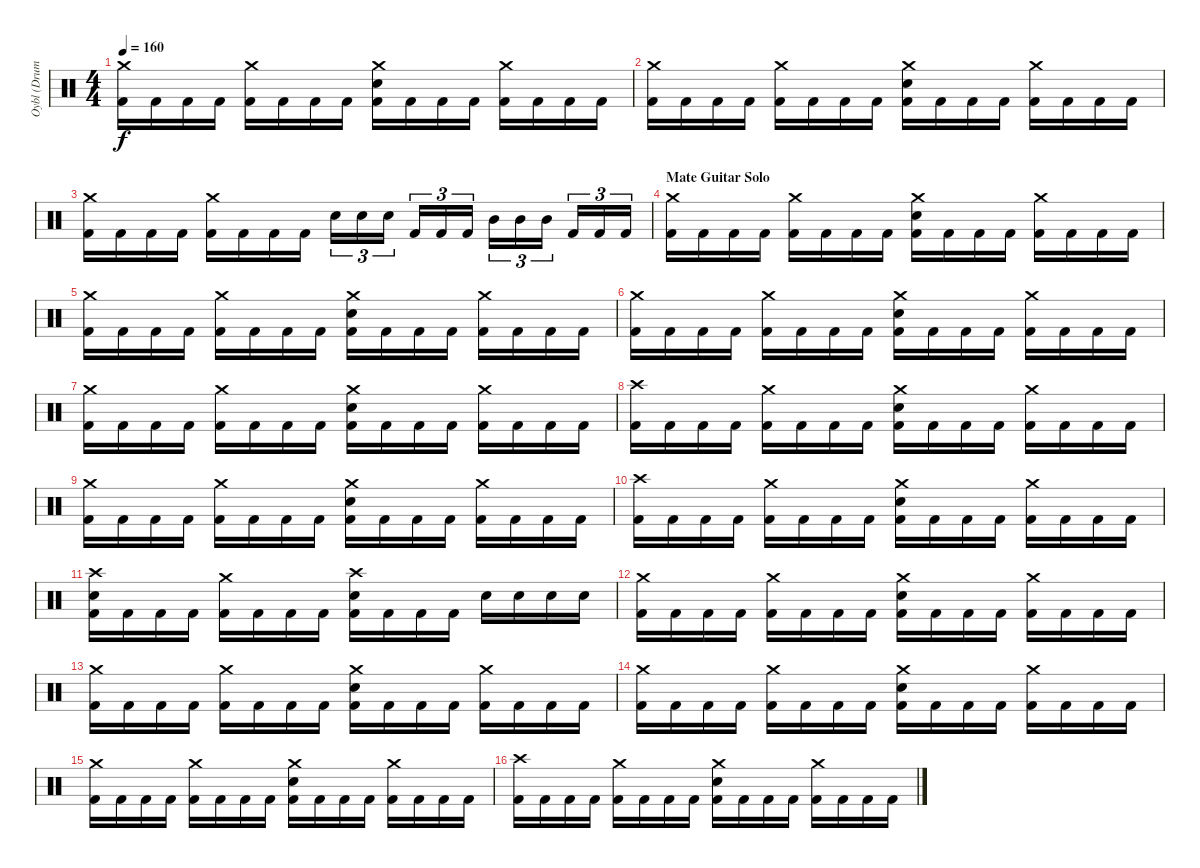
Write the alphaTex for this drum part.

\track ("Oybl (Drums)" "Oybl (Drum") {instrument percussion}
\staff {score}
\articulation defaults
\ts (4 4)
\tempo 160
\clef neutral
\ks c
("Crash medium (hit)" "Kick (hit) 2").16{dy f} "Kick (hit) 2".16 "Kick (hit) 2".16 "Kick (hit) 2".16 ("Crash medium (hit)" "Kick (hit) 2").16 "Kick (hit) 2".16 "Kick (hit) 2".16 "Kick (hit) 2".16 ("Crash medium (hit)" "Snare (hit) 2" "Kick (hit) 2").16 "Kick (hit) 2".16 "Kick (hit) 2".16 "Kick (hit) 2".16 ("Crash medium (hit)" "Kick (hit) 2").16 "Kick (hit) 2".16 "Kick (hit) 2".16 "Kick (hit) 2".16 |
("Crash medium (hit)" "Kick (hit) 2").16 "Kick (hit) 2".16 "Kick (hit) 2".16 "Kick (hit) 2".16 ("Crash medium (hit)" "Kick (hit) 2").16 "Kick (hit) 2".16 "Kick (hit) 2".16 "Kick (hit) 2".16 ("Crash medium (hit)" "Snare (hit) 2" "Kick (hit) 2").16 "Kick (hit) 2".16 "Kick (hit) 2".16 "Kick (hit) 2".16 ("Crash medium (hit)" "Kick (hit) 2").16 "Kick (hit) 2".16 "Kick (hit) 2".16 "Kick (hit) 2".16 |
("Crash medium (hit)" "Kick (hit) 2").16 "Kick (hit) 2".16 "Kick (hit) 2".16 "Kick (hit) 2".16 ("Crash medium (hit)" "Kick (hit) 2").16 "Kick (hit) 2".16 "Kick (hit) 2".16 "Kick (hit) 2".16 "Snare (hit) 2".16{tu (3 2)} "Snare (hit) 2".16{tu (3 2)} "Snare (hit) 2".16{tu (3 2)} "Kick (hit) 2".16{tu (3 2)} "Kick (hit) 2".16{tu (3 2)} "Kick (hit) 2".16{tu (3 2)} "Mid Tom (hit)".16{tu (3 2)} "Mid Tom (hit)".16{tu (3 2)} "Mid Tom (hit)".16{tu (3 2)} "Kick (hit) 2".16{tu (3 2)} "Kick (hit) 2".16{tu (3 2)} "Kick (hit) 2".16{tu (3 2)} |
\section ("" "Mate Guitar Solo")
("Crash medium (hit)" "Kick (hit) 2").16 "Kick (hit) 2".16 "Kick (hit) 2".16 "Kick (hit) 2".16 ("Crash medium (hit)" "Kick (hit) 2").16 "Kick (hit) 2".16 "Kick (hit) 2".16 "Kick (hit) 2".16 ("Crash medium (hit)" "Snare (hit) 2" "Kick (hit) 2").16 "Kick (hit) 2".16 "Kick (hit) 2".16 "Kick (hit) 2".16 ("Crash medium (hit)" "Kick (hit) 2").16 "Kick (hit) 2".16 "Kick (hit) 2".16 "Kick (hit) 2".16 |
("Crash medium (hit)" "Kick (hit) 2").16 "Kick (hit) 2".16 "Kick (hit) 2".16 "Kick (hit) 2".16 ("Crash medium (hit)" "Kick (hit) 2").16 "Kick (hit) 2".16 "Kick (hit) 2".16 "Kick (hit) 2".16 ("Crash medium (hit)" "Snare (hit) 2" "Kick (hit) 2").16 "Kick (hit) 2".16 "Kick (hit) 2".16 "Kick (hit) 2".16 ("Crash medium (hit)" "Kick (hit) 2").16 "Kick (hit) 2".16 "Kick (hit) 2".16 "Kick (hit) 2".16 |
("Crash medium (hit)" "Kick (hit) 2").16 "Kick (hit) 2".16 "Kick (hit) 2".16 "Kick (hit) 2".16 ("Crash medium (hit)" "Kick (hit) 2").16 "Kick (hit) 2".16 "Kick (hit) 2".16 "Kick (hit) 2".16 ("Crash medium (hit)" "Snare (hit) 2" "Kick (hit) 2").16 "Kick (hit) 2".16 "Kick (hit) 2".16 "Kick (hit) 2".16 ("Crash medium (hit)" "Kick (hit) 2").16 "Kick (hit) 2".16 "Kick (hit) 2".16 "Kick (hit) 2".16 |
("Crash medium (hit)" "Kick (hit) 2").16 "Kick (hit) 2".16 "Kick (hit) 2".16 "Kick (hit) 2".16 ("Crash medium (hit)" "Kick (hit) 2").16 "Kick (hit) 2".16 "Kick (hit) 2".16 "Kick (hit) 2".16 ("Crash medium (hit)" "Snare (hit) 2" "Kick (hit) 2").16 "Kick (hit) 2".16 "Kick (hit) 2".16 "Kick (hit) 2".16 ("Crash medium (hit)" "Kick (hit) 2").16 "Kick (hit) 2".16 "Kick (hit) 2".16 "Kick (hit) 2".16 |
("Crash high (hit)" "Kick (hit) 2").16 "Kick (hit) 2".16 "Kick (hit) 2".16 "Kick (hit) 2".16 ("Crash medium (hit)" "Kick (hit) 2").16 "Kick (hit) 2".16 "Kick (hit) 2".16 "Kick (hit) 2".16 ("Crash medium (hit)" "Snare (hit) 2" "Kick (hit) 2").16 "Kick (hit) 2".16 "Kick (hit) 2".16 "Kick (hit) 2".16 ("Crash medium (hit)" "Kick (hit) 2").16 "Kick (hit) 2".16 "Kick (hit) 2".16 "Kick (hit) 2".16 |
("Crash medium (hit)" "Kick (hit) 2").16 "Kick (hit) 2".16 "Kick (hit) 2".16 "Kick (hit) 2".16 ("Crash medium (hit)" "Kick (hit) 2").16 "Kick (hit) 2".16 "Kick (hit) 2".16 "Kick (hit) 2".16 ("Crash medium (hit)" "Snare (hit) 2" "Kick (hit) 2").16 "Kick (hit) 2".16 "Kick (hit) 2".16 "Kick (hit) 2".16 ("Crash medium (hit)" "Kick (hit) 2").16 "Kick (hit) 2".16 "Kick (hit) 2".16 "Kick (hit) 2".16 |
("Crash high (hit)" "Kick (hit) 2").16 "Kick (hit) 2".16 "Kick (hit) 2".16 "Kick (hit) 2".16 ("Crash medium (hit)" "Kick (hit) 2").16 "Kick (hit) 2".16 "Kick (hit) 2".16 "Kick (hit) 2".16 ("Crash medium (hit)" "Snare (hit) 2" "Kick (hit) 2").16 "Kick (hit) 2".16 "Kick (hit) 2".16 "Kick (hit) 2".16 ("Crash medium (hit)" "Kick (hit) 2").16 "Kick (hit) 2".16 "Kick (hit) 2".16 "Kick (hit) 2".16 |
("Crash high (hit)" "Snare (hit) 2" "Kick (hit) 2").16 "Kick (hit) 2".16 "Kick (hit) 2".16 "Kick (hit) 2".16 ("Crash medium (hit)" "Kick (hit) 2").16 "Kick (hit) 2".16 "Kick (hit) 2".16 "Kick (hit) 2".16 ("Crash high (hit)" "Snare (hit) 2" "Kick (hit) 2").16 "Kick (hit) 2".16 "Kick (hit) 2".16 "Kick (hit) 2".16 "Snare (hit) 2".16 "Snare (hit) 2".16 "Snare (hit) 2".16 "Snare (hit) 2".16 |
("Crash medium (hit)" "Kick (hit) 2").16 "Kick (hit) 2".16 "Kick (hit) 2".16 "Kick (hit) 2".16 ("Crash medium (hit)" "Kick (hit) 2").16 "Kick (hit) 2".16 "Kick (hit) 2".16 "Kick (hit) 2".16 ("Crash medium (hit)" "Snare (hit) 2" "Kick (hit) 2").16 "Kick (hit) 2".16 "Kick (hit) 2".16 "Kick (hit) 2".16 ("Crash medium (hit)" "Kick (hit) 2").16 "Kick (hit) 2".16 "Kick (hit) 2".16 "Kick (hit) 2".16 |
("Crash medium (hit)" "Kick (hit) 2").16 "Kick (hit) 2".16 "Kick (hit) 2".16 "Kick (hit) 2".16 ("Crash medium (hit)" "Kick (hit) 2").16 "Kick (hit) 2".16 "Kick (hit) 2".16 "Kick (hit) 2".16 ("Crash medium (hit)" "Snare (hit) 2" "Kick (hit) 2").16 "Kick (hit) 2".16 "Kick (hit) 2".16 "Kick (hit) 2".16 ("Crash medium (hit)" "Kick (hit) 2").16 "Kick (hit) 2".16 "Kick (hit) 2".16 "Kick (hit) 2".16 |
("Crash medium (hit)" "Kick (hit) 2").16 "Kick (hit) 2".16 "Kick (hit) 2".16 "Kick (hit) 2".16 ("Crash medium (hit)" "Kick (hit) 2").16 "Kick (hit) 2".16 "Kick (hit) 2".16 "Kick (hit) 2".16 ("Crash medium (hit)" "Snare (hit) 2" "Kick (hit) 2").16 "Kick (hit) 2".16 "Kick (hit) 2".16 "Kick (hit) 2".16 ("Crash medium (hit)" "Kick (hit) 2").16 "Kick (hit) 2".16 "Kick (hit) 2".16 "Kick (hit) 2".16 |
("Crash medium (hit)" "Kick (hit) 2").16 "Kick (hit) 2".16 "Kick (hit) 2".16 "Kick (hit) 2".16 ("Crash medium (hit)" "Kick (hit) 2").16 "Kick (hit) 2".16 "Kick (hit) 2".16 "Kick (hit) 2".16 ("Crash medium (hit)" "Snare (hit) 2" "Kick (hit) 2").16 "Kick (hit) 2".16 "Kick (hit) 2".16 "Kick (hit) 2".16 ("Crash medium (hit)" "Kick (hit) 2").16 "Kick (hit) 2".16 "Kick (hit) 2".16 "Kick (hit) 2".16 |
("Crash high (hit)" "Kick (hit) 2").16 "Kick (hit) 2".16 "Kick (hit) 2".16 "Kick (hit) 2".16 ("Crash medium (hit)" "Kick (hit) 2").16 "Kick (hit) 2".16 "Kick (hit) 2".16 "Kick (hit) 2".16 ("Crash medium (hit)" "Snare (hit) 2" "Kick (hit) 2").16 "Kick (hit) 2".16 "Kick (hit) 2".16 "Kick (hit) 2".16 ("Crash medium (hit)" "Kick (hit) 2").16 "Kick (hit) 2".16 "Kick (hit) 2".16 "Kick (hit) 2".16
